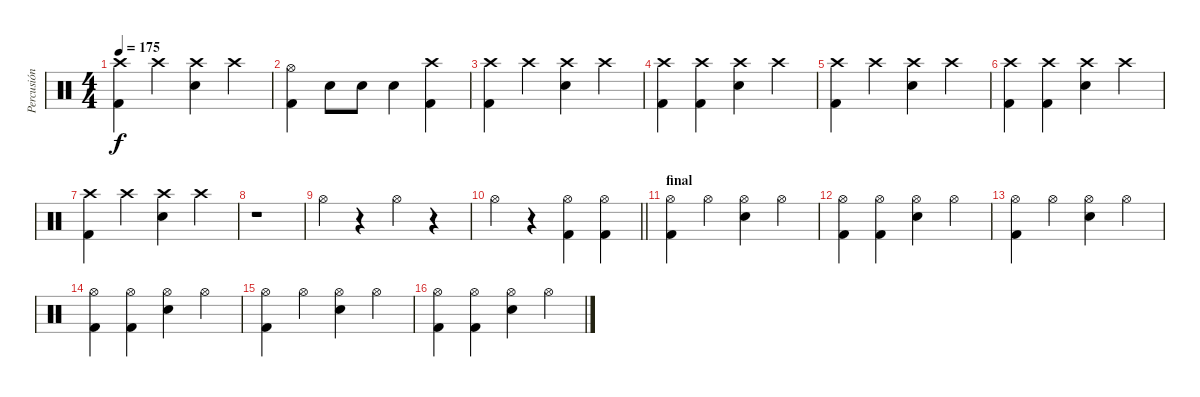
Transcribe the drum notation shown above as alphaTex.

\track ("Percusión" "Percusión") {instrument percussion}
\staff {score}
\articulation defaults
\ts (4 4)
\tempo 175
\clef neutral
\ks c
("Crash high (hit)" "Kick (hit) 2").4{dy f} "Crash high (hit)".4 ("Crash high (hit)" "Snare (hit) 2").4 "Crash high (hit)".4 |
("Hi-Hat (open)" "Kick (hit) 2").4 "Snare (hit) 2".8 "Snare (hit) 2".8 "Snare (hit) 2".4 ("Crash high (hit)" "Kick (hit) 2").4 |
("Crash high (hit)" "Kick (hit) 2").4 "Crash high (hit)".4 ("Crash high (hit)" "Snare (hit) 2").4 "Crash high (hit)".4 |
("Crash high (hit)" "Kick (hit) 2").4 ("Crash high (hit)" "Kick (hit) 2").4 ("Crash high (hit)" "Snare (hit) 2").4 "Crash high (hit)".4 |
("Crash high (hit)" "Kick (hit) 2").4 "Crash high (hit)".4 ("Crash high (hit)" "Snare (hit) 2").4 "Crash high (hit)".4 |
("Crash high (hit)" "Kick (hit) 2").4 ("Crash high (hit)" "Kick (hit) 2").4 ("Crash high (hit)" "Snare (hit) 2").4 "Crash high (hit)".4 |
("Crash high (hit)" "Kick (hit) 2").4 "Crash high (hit)".4 ("Crash high (hit)" "Snare (hit) 2").4 "Crash high (hit)".4 |
r.1 |
"Hi-Hat (open)".4 r.4 "Hi-Hat (open)".4 r.4 |
\barLineRight lightlight "Hi-Hat (open)".4
r.4 ("Hi-Hat (open)" "Kick (hit) 2").4 ("Hi-Hat (open)" "Kick (hit) 2").4 |
\section ("" "final")
("Hi-Hat (open)" "Kick (hit) 2").4 "Hi-Hat (open)".4 ("Hi-Hat (open)" "Snare (hit) 2").4 "Hi-Hat (open)".4 |
("Hi-Hat (open)" "Kick (hit) 2").4 ("Hi-Hat (open)" "Kick (hit) 2").4 ("Hi-Hat (open)" "Snare (hit) 2").4 "Hi-Hat (open)".4 |
("Hi-Hat (open)" "Kick (hit) 2").4 "Hi-Hat (open)".4 ("Hi-Hat (open)" "Snare (hit) 2").4 "Hi-Hat (open)".4 |
("Hi-Hat (open)" "Kick (hit) 2").4 ("Hi-Hat (open)" "Kick (hit) 2").4 ("Hi-Hat (open)" "Snare (hit) 2").4 "Hi-Hat (open)".4 |
("Hi-Hat (open)" "Kick (hit) 2").4 "Hi-Hat (open)".4 ("Hi-Hat (open)" "Snare (hit) 2").4 "Hi-Hat (open)".4 |
("Hi-Hat (open)" "Kick (hit) 2").4 ("Hi-Hat (open)" "Kick (hit) 2").4 ("Hi-Hat (open)" "Snare (hit) 2").4 "Hi-Hat (open)".4
